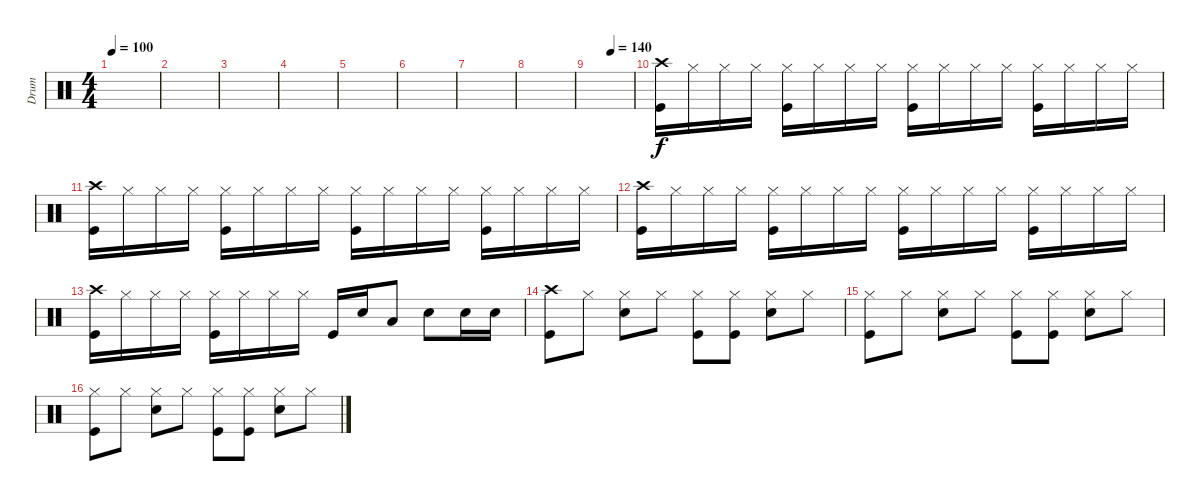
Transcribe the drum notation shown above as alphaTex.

\track ("Drum" "Drum") {instrument percussion}
\staff {score}
\articulation defaults
\ts (4 4)
\tempo 100
\clef neutral
\ks c
|
|
|
|
|
|
|
|
\tempo (140 0.5)
|
("Crash high (hit)" "Kick (hit)").16 "Hi-Hat (closed)".16 "Hi-Hat (closed)".16 "Hi-Hat (closed)".16 ("Hi-Hat (closed)" "Kick (hit)").16 "Hi-Hat (closed)".16 "Hi-Hat (closed)".16 "Hi-Hat (closed)".16 ("Hi-Hat (closed)" "Kick (hit)").16 "Hi-Hat (closed)".16 "Hi-Hat (closed)".16 "Hi-Hat (closed)".16 ("Hi-Hat (closed)" "Kick (hit)").16 "Hi-Hat (closed)".16 "Hi-Hat (closed)".16 "Hi-Hat (closed)".16 |
("Crash high (hit)" "Kick (hit)").16 "Hi-Hat (closed)".16 "Hi-Hat (closed)".16 "Hi-Hat (closed)".16 ("Hi-Hat (closed)" "Kick (hit)").16 "Hi-Hat (closed)".16 "Hi-Hat (closed)".16 "Hi-Hat (closed)".16 ("Hi-Hat (closed)" "Kick (hit)").16 "Hi-Hat (closed)".16 "Hi-Hat (closed)".16 "Hi-Hat (closed)".16 ("Hi-Hat (closed)" "Kick (hit)").16 "Hi-Hat (closed)".16 "Hi-Hat (closed)".16 "Hi-Hat (closed)".16 |
("Crash high (hit)" "Kick (hit)").16 "Hi-Hat (closed)".16 "Hi-Hat (closed)".16 "Hi-Hat (closed)".16 ("Hi-Hat (closed)" "Kick (hit)").16 "Hi-Hat (closed)".16 "Hi-Hat (closed)".16 "Hi-Hat (closed)".16 ("Hi-Hat (closed)" "Kick (hit)").16 "Hi-Hat (closed)".16 "Hi-Hat (closed)".16 "Hi-Hat (closed)".16 ("Hi-Hat (closed)" "Kick (hit)").16 "Hi-Hat (closed)".16 "Hi-Hat (closed)".16 "Hi-Hat (closed)".16 |
("Crash high (hit)" "Kick (hit)").16 "Hi-Hat (closed)".16 "Hi-Hat (closed)".16 "Hi-Hat (closed)".16 ("Hi-Hat (closed)" "Kick (hit)").16 "Hi-Hat (closed)".16 "Hi-Hat (closed)".16 "Hi-Hat (closed)".16 "Kick (hit)".16 "Snare (hit) 2".16 "Low Floor Tom (hit)".8 "Snare (hit) 2".8 "Snare (hit) 2".16 "Snare (hit) 2".16 |
("Crash high (hit)" "Kick (hit)").8 "Hi-Hat (closed)".8 ("Hi-Hat (closed)" "Snare (hit) 2").8 "Hi-Hat (closed)".8 ("Hi-Hat (closed)" "Kick (hit)").8 ("Hi-Hat (closed)" "Kick (hit)").8 ("Hi-Hat (closed)" "Snare (hit) 2").8 "Hi-Hat (closed)".8 |
("Hi-Hat (closed)" "Kick (hit)").8 "Hi-Hat (closed)".8 ("Hi-Hat (closed)" "Snare (hit) 2").8 "Hi-Hat (closed)".8 ("Hi-Hat (closed)" "Kick (hit)").8 ("Hi-Hat (closed)" "Kick (hit)").8 ("Hi-Hat (closed)" "Snare (hit) 2").8 "Hi-Hat (closed)".8 |
("Hi-Hat (closed)" "Kick (hit)").8 "Hi-Hat (closed)".8 ("Hi-Hat (closed)" "Snare (hit) 2").8 "Hi-Hat (closed)".8 ("Hi-Hat (closed)" "Kick (hit)").8 ("Hi-Hat (closed)" "Kick (hit)").8 ("Hi-Hat (closed)" "Snare (hit) 2").8 "Hi-Hat (closed)".8
